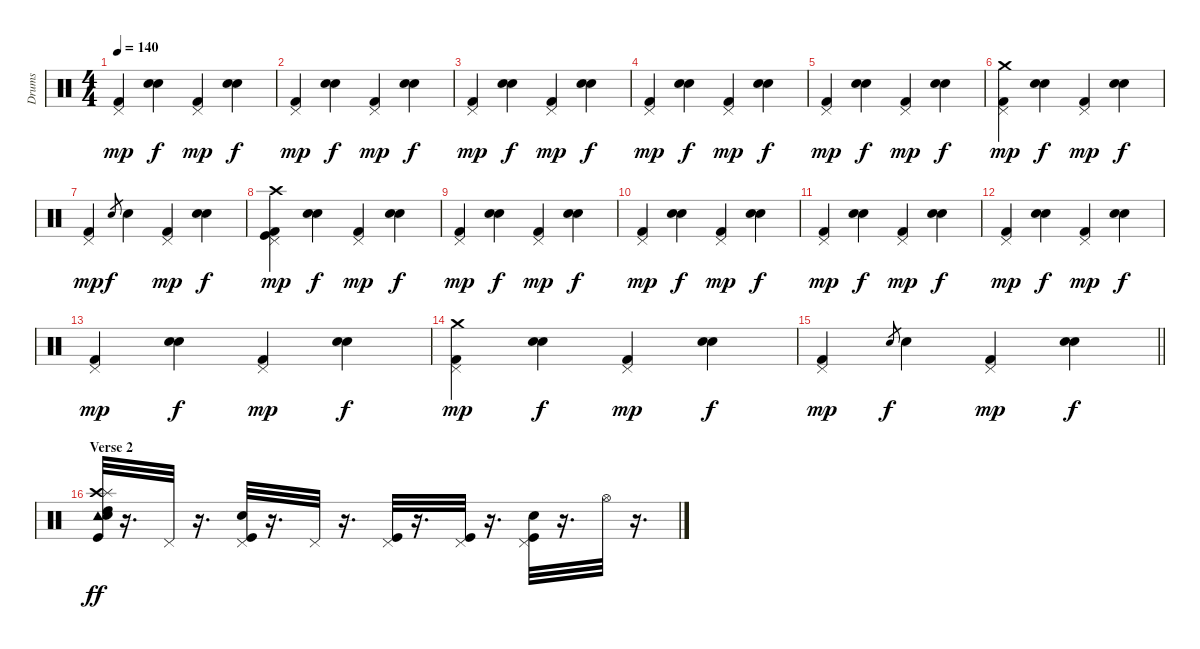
\track ("Drums" "Drums") {instrument percussion}
\staff {score}
\articulation defaults
\ts (4 4)
\tempo 140
\clef neutral
\ks c
("Pedal Hi-Hat (hit)" "Kick (hit) 2").4{dy mp} ("Snare (hit) 2" "Electric Snare (hit)").4{dy f} ("Pedal Hi-Hat (hit)" "Kick (hit) 2").4{dy mp} ("Snare (hit) 2" "Electric Snare (hit)").4{dy f} |
("Pedal Hi-Hat (hit)" "Kick (hit) 2").4{dy mp} ("Snare (hit) 2" "Electric Snare (hit)").4{dy f} ("Pedal Hi-Hat (hit)" "Kick (hit) 2").4{dy mp} ("Snare (hit) 2" "Electric Snare (hit)").4{dy f} |
("Pedal Hi-Hat (hit)" "Kick (hit) 2").4{dy mp} ("Snare (hit) 2" "Electric Snare (hit)").4{dy f} ("Pedal Hi-Hat (hit)" "Kick (hit) 2").4{dy mp} ("Snare (hit) 2" "Electric Snare (hit)").4{dy f} |
("Pedal Hi-Hat (hit)" "Kick (hit) 2").4{dy mp} ("Snare (hit) 2" "Electric Snare (hit)").4{dy f} ("Pedal Hi-Hat (hit)" "Kick (hit) 2").4{dy mp} ("Snare (hit) 2" "Electric Snare (hit)").4{dy f} |
("Pedal Hi-Hat (hit)" "Kick (hit) 2").4{dy mp} ("Snare (hit) 2" "Electric Snare (hit)").4{dy f} ("Pedal Hi-Hat (hit)" "Kick (hit) 2").4{dy mp} ("Snare (hit) 2" "Electric Snare (hit)").4{dy f} |
("Pedal Hi-Hat (hit)" "Crash medium (hit)" "Kick (hit) 2").4{dy mp} ("Snare (hit) 2" "Electric Snare (hit)").4{dy f} ("Pedal Hi-Hat (hit)" "Kick (hit) 2").4{dy mp} ("Snare (hit) 2" "Electric Snare (hit)").4{dy f} |
("Pedal Hi-Hat (hit)" "Kick (hit) 2").4{dy mp} "Snare (hit) 2".8{gr dy f} "Electric Snare (hit)".4 ("Pedal Hi-Hat (hit)" "Kick (hit) 2").4{dy mp} ("Snare (hit) 2" "Electric Snare (hit)").4{dy f} |
("Pedal Hi-Hat (hit)" "Kick (hit)" "Crash high (hit)" "Kick (hit) 2").4{dy mp} ("Snare (hit) 2" "Electric Snare (hit)").4{dy f} ("Pedal Hi-Hat (hit)" "Kick (hit) 2").4{dy mp} ("Snare (hit) 2" "Electric Snare (hit)").4{dy f} |
("Pedal Hi-Hat (hit)" "Kick (hit) 2").4{dy mp} ("Snare (hit) 2" "Electric Snare (hit)").4{dy f} ("Pedal Hi-Hat (hit)" "Kick (hit) 2").4{dy mp} ("Snare (hit) 2" "Electric Snare (hit)").4{dy f} |
("Pedal Hi-Hat (hit)" "Kick (hit) 2").4{dy mp} ("Snare (hit) 2" "Electric Snare (hit)").4{dy f} ("Pedal Hi-Hat (hit)" "Kick (hit) 2").4{dy mp} ("Snare (hit) 2" "Electric Snare (hit)").4{dy f} |
("Pedal Hi-Hat (hit)" "Kick (hit) 2").4{dy mp} ("Snare (hit) 2" "Electric Snare (hit)").4{dy f} ("Pedal Hi-Hat (hit)" "Kick (hit) 2").4{dy mp} ("Snare (hit) 2" "Electric Snare (hit)").4{dy f} |
("Pedal Hi-Hat (hit)" "Kick (hit) 2").4{dy mp} ("Snare (hit) 2" "Electric Snare (hit)").4{dy f} ("Pedal Hi-Hat (hit)" "Kick (hit) 2").4{dy mp} ("Snare (hit) 2" "Electric Snare (hit)").4{dy f} |
("Pedal Hi-Hat (hit)" "Kick (hit) 2").4{dy mp} ("Snare (hit) 2" "Electric Snare (hit)").4{dy f} ("Pedal Hi-Hat (hit)" "Kick (hit) 2").4{dy mp} ("Snare (hit) 2" "Electric Snare (hit)").4{dy f} |
("Pedal Hi-Hat (hit)" "Crash medium (hit)" "Kick (hit) 2").4{dy mp} ("Snare (hit) 2" "Electric Snare (hit)").4{dy f} ("Pedal Hi-Hat (hit)" "Kick (hit) 2").4{dy mp} ("Snare (hit) 2" "Electric Snare (hit)").4{dy f} |
\barLineRight lightlight
("Pedal Hi-Hat (hit)" "Kick (hit) 2").4{dy mp} "Snare (hit) 2".8{gr dy f} "Electric Snare (hit)".4 ("Pedal Hi-Hat (hit)" "Kick (hit) 2").4{dy mp} ("Snare (hit) 2" "Electric Snare (hit)").4{dy f} |
\section ("" "Verse 2")
("Crash high (hit)" "Kick (hit)" "Tambourine (hit)" "Snare (hit) 2" "Splash (hit)" "High Tom (hit)").32{dy ff} r.16{d} "Pedal Hi-Hat (hit)".32 r.16{d} ("Snare (hit) 2" "Pedal Hi-Hat (hit)" "Kick (hit)").32 r.16{d} "Pedal Hi-Hat (hit)".32 r.16{d} ("Pedal Hi-Hat (hit)" "Kick (hit)").32 r.16{d} ("Pedal Hi-Hat (hit)" "Kick (hit)").32 r.16{d} ("Pedal Hi-Hat (hit)" "Kick (hit)" "Snare (hit) 2").32 r.16{d} "Hi-Hat (open)".32 r.16{d}
